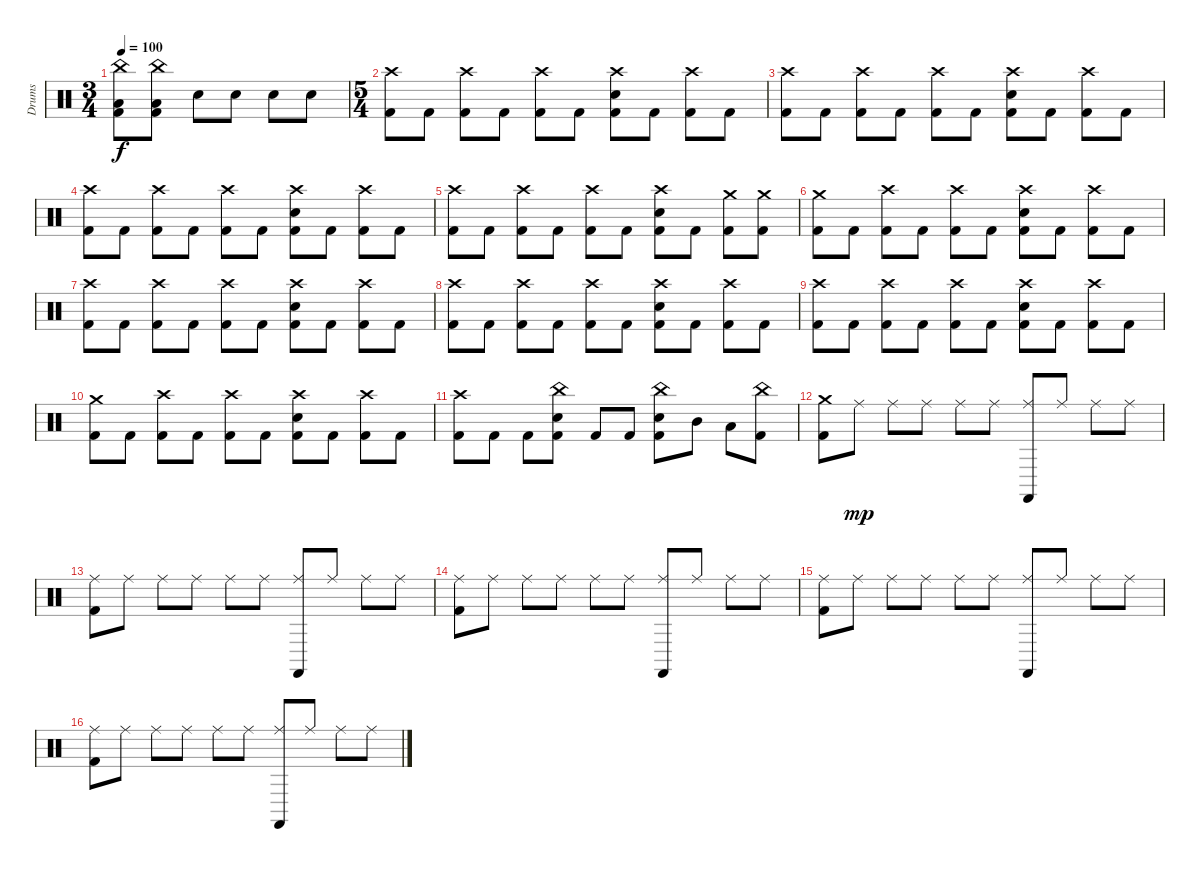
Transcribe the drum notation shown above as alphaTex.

\track ("Drums" "Drums") {instrument percussion}
\staff {score}
\articulation defaults
\ts (3 4)
\tempo 100
\clef neutral
\ks c
("China (hit)" "Low Tom (hit)" "Kick (hit) 2").8{dy f} ("China (hit)" "Low Tom (hit)" "Kick (hit) 2").8 "Snare (hit) 2".8 "Snare (hit) 2".8 "Snare (hit) 2".8 "Snare (hit) 2".8 |
\ts (5 4)
("Crash high (hit)" "Kick (hit) 2").8 "Kick (hit) 2".8 ("Crash high (hit)" "Kick (hit) 2").8 "Kick (hit) 2".8 ("Crash high (hit)" "Kick (hit) 2").8 "Kick (hit) 2".8 ("Crash high (hit)" "Snare (hit) 2" "Kick (hit) 2").8 "Kick (hit) 2".8 ("Crash high (hit)" "Kick (hit) 2").8 "Kick (hit) 2".8 |
("Crash high (hit)" "Kick (hit) 2").8 "Kick (hit) 2".8 ("Crash high (hit)" "Kick (hit) 2").8 "Kick (hit) 2".8 ("Crash high (hit)" "Kick (hit) 2").8 "Kick (hit) 2".8 ("Crash high (hit)" "Snare (hit) 2" "Kick (hit) 2").8 "Kick (hit) 2".8 ("Crash high (hit)" "Kick (hit) 2").8 "Kick (hit) 2".8 |
("Crash high (hit)" "Kick (hit) 2").8 "Kick (hit) 2".8 ("Crash high (hit)" "Kick (hit) 2").8 "Kick (hit) 2".8 ("Crash high (hit)" "Kick (hit) 2").8 "Kick (hit) 2".8 ("Crash high (hit)" "Snare (hit) 2" "Kick (hit) 2").8 "Kick (hit) 2".8 ("Crash high (hit)" "Kick (hit) 2").8 "Kick (hit) 2".8 |
("Crash high (hit)" "Kick (hit) 2").8 "Kick (hit) 2".8 ("Crash high (hit)" "Kick (hit) 2").8 "Kick (hit) 2".8 ("Crash high (hit)" "Kick (hit) 2").8 "Kick (hit) 2".8 ("Crash high (hit)" "Snare (hit) 2" "Kick (hit) 2").8 "Kick (hit) 2".8 ("Crash medium (hit)" "Kick (hit) 2").8 ("Crash medium (hit)" "Kick (hit) 2").8 |
("Crash medium (hit)" "Kick (hit) 2").8 "Kick (hit) 2".8 ("Crash high (hit)" "Kick (hit) 2").8 "Kick (hit) 2".8 ("Crash high (hit)" "Kick (hit) 2").8 "Kick (hit) 2".8 ("Crash high (hit)" "Snare (hit) 2" "Kick (hit) 2").8 "Kick (hit) 2".8 ("Crash high (hit)" "Kick (hit) 2").8 "Kick (hit) 2".8 |
("Crash high (hit)" "Kick (hit) 2").8 "Kick (hit) 2".8 ("Crash high (hit)" "Kick (hit) 2").8 "Kick (hit) 2".8 ("Crash high (hit)" "Kick (hit) 2").8 "Kick (hit) 2".8 ("Crash high (hit)" "Snare (hit) 2" "Kick (hit) 2").8 "Kick (hit) 2".8 ("Crash high (hit)" "Kick (hit) 2").8 "Kick (hit) 2".8 |
("Crash high (hit)" "Kick (hit) 2").8 "Kick (hit) 2".8 ("Crash high (hit)" "Kick (hit) 2").8 "Kick (hit) 2".8 ("Crash high (hit)" "Kick (hit) 2").8 "Kick (hit) 2".8 ("Crash high (hit)" "Snare (hit) 2" "Kick (hit) 2").8 "Kick (hit) 2".8 ("Crash high (hit)" "Kick (hit) 2").8 "Kick (hit) 2".8 |
("Crash high (hit)" "Kick (hit) 2").8 "Kick (hit) 2".8 ("Crash high (hit)" "Kick (hit) 2").8 "Kick (hit) 2".8 ("Crash high (hit)" "Kick (hit) 2").8 "Kick (hit) 2".8 ("Crash high (hit)" "Snare (hit) 2" "Kick (hit) 2").8 "Kick (hit) 2".8 ("Crash high (hit)" "Kick (hit) 2").8 "Kick (hit) 2".8 |
("Crash medium (hit)" "Kick (hit) 2").8 "Kick (hit) 2".8 ("Crash high (hit)" "Kick (hit) 2").8 "Kick (hit) 2".8 ("Crash high (hit)" "Kick (hit) 2").8 "Kick (hit) 2".8 ("Crash high (hit)" "Snare (hit) 2" "Kick (hit) 2").8 "Kick (hit) 2".8 ("Crash high (hit)" "Kick (hit) 2").8 "Kick (hit) 2".8 |
("Crash high (hit)" "Kick (hit) 2").8 "Kick (hit) 2".8 "Kick (hit) 2".8 ("China (hit)" "Snare (hit) 2" "Kick (hit) 2").8 "Kick (hit) 2".8 "Kick (hit) 2".8 ("China (hit)" "Snare (hit) 2" "Kick (hit) 2").8 "Mid Tom (hit)".8 "Low Tom (hit)".8 ("China (hit)" "Kick (hit) 2").8 |
("Crash medium (hit)" "Kick (hit) 2").8 "Ride (middle)".8{dy mp} "Ride (middle)".8 "Ride (middle)".8 "Ride (middle)".8 "Ride (middle)".8 ("Ride (middle)" "Castanets (hit)").8 "Ride (middle)".8 "Ride (middle)".8 "Ride (middle)".8 |
("Ride (middle)" "Kick (hit) 2").8 "Ride (middle)".8 "Ride (middle)".8 "Ride (middle)".8 "Ride (middle)".8 "Ride (middle)".8 ("Ride (middle)" "Castanets (hit)").8 "Ride (middle)".8 "Ride (middle)".8 "Ride (middle)".8 |
("Ride (middle)" "Kick (hit) 2").8 "Ride (middle)".8 "Ride (middle)".8 "Ride (middle)".8 "Ride (middle)".8 "Ride (middle)".8 ("Ride (middle)" "Castanets (hit)").8 "Ride (middle)".8 "Ride (middle)".8 "Ride (middle)".8 |
("Ride (middle)" "Kick (hit) 2").8 "Ride (middle)".8 "Ride (middle)".8 "Ride (middle)".8 "Ride (middle)".8 "Ride (middle)".8 ("Ride (middle)" "Castanets (hit)").8 "Ride (middle)".8 "Ride (middle)".8 "Ride (middle)".8 |
("Ride (middle)" "Kick (hit) 2").8 "Ride (middle)".8 "Ride (middle)".8 "Ride (middle)".8 "Ride (middle)".8 "Ride (middle)".8 ("Ride (middle)" "Castanets (hit)").8 "Ride (middle)".8 "Ride (middle)".8 "Ride (middle)".8
